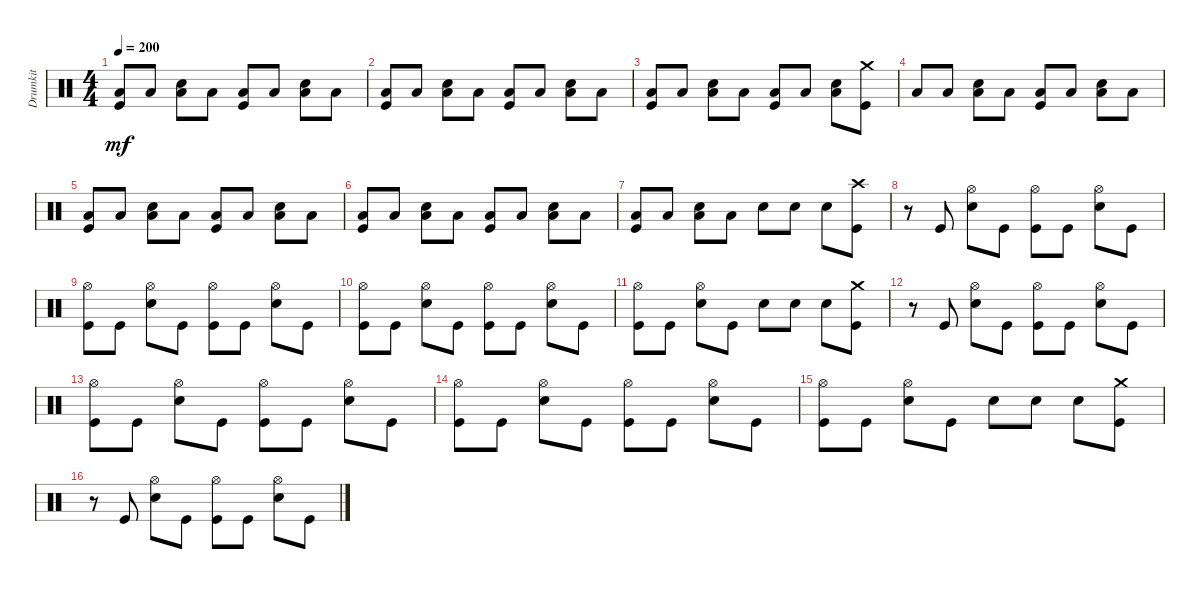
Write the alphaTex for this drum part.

\track ("Drumkit" "Drumkit") {instrument percussion}
\staff {score}
\articulation defaults
\ts (4 4)
\tempo 200
\clef neutral
\ks c
("Low Floor Tom (hit)" "Kick (hit)").8{dy mf} "Low Floor Tom (hit)".8 ("Low Floor Tom (hit)" "Snare (hit) 2").8 "Low Floor Tom (hit)".8 ("Low Floor Tom (hit)" "Kick (hit)").8 "Low Floor Tom (hit)".8 ("Low Floor Tom (hit)" "Snare (hit) 2").8 "Low Floor Tom (hit)".8 |
("Low Floor Tom (hit)" "Kick (hit)").8 "Low Floor Tom (hit)".8 ("Low Floor Tom (hit)" "Snare (hit) 2").8 "Low Floor Tom (hit)".8 ("Low Floor Tom (hit)" "Kick (hit)").8 "Low Floor Tom (hit)".8 ("Low Floor Tom (hit)" "Snare (hit) 2").8 "Low Floor Tom (hit)".8 |
("Low Floor Tom (hit)" "Kick (hit)").8 "Low Floor Tom (hit)".8 ("Low Floor Tom (hit)" "Snare (hit) 2").8 "Low Floor Tom (hit)".8 ("Low Floor Tom (hit)" "Kick (hit)").8 "Low Floor Tom (hit)".8 ("Low Floor Tom (hit)" "Snare (hit) 2").8 ("Kick (hit)" "Crash medium (hit)").8 |
"Low Floor Tom (hit)".8 "Low Floor Tom (hit)".8 ("Low Floor Tom (hit)" "Snare (hit) 2").8 "Low Floor Tom (hit)".8 ("Low Floor Tom (hit)" "Kick (hit)").8 "Low Floor Tom (hit)".8 ("Low Floor Tom (hit)" "Snare (hit) 2").8 "Low Floor Tom (hit)".8 |
("Low Floor Tom (hit)" "Kick (hit)").8 "Low Floor Tom (hit)".8 ("Low Floor Tom (hit)" "Snare (hit) 2").8 "Low Floor Tom (hit)".8 ("Low Floor Tom (hit)" "Kick (hit)").8 "Low Floor Tom (hit)".8 ("Low Floor Tom (hit)" "Snare (hit) 2").8 "Low Floor Tom (hit)".8 |
("Low Floor Tom (hit)" "Kick (hit)").8 "Low Floor Tom (hit)".8 ("Low Floor Tom (hit)" "Snare (hit) 2").8 "Low Floor Tom (hit)".8 ("Low Floor Tom (hit)" "Kick (hit)").8 "Low Floor Tom (hit)".8 ("Low Floor Tom (hit)" "Snare (hit) 2").8 "Low Floor Tom (hit)".8 |
("Low Floor Tom (hit)" "Kick (hit)").8 "Low Floor Tom (hit)".8 ("Low Floor Tom (hit)" "Snare (hit) 2").8 "Low Floor Tom (hit)".8 "Snare (hit) 2".8 "Snare (hit) 2".8 "Snare (hit) 2".8 ("Kick (hit)" "Crash high (hit)").8 |
r.8 "Kick (hit)".8 ("Hi-Hat (open)" "Snare (hit) 2").8 "Kick (hit)".8 ("Kick (hit)" "Hi-Hat (open)").8 "Kick (hit)".8 ("Snare (hit) 2" "Hi-Hat (open)").8 "Kick (hit)".8 |
("Kick (hit)" "Hi-Hat (open)").8 "Kick (hit)".8 ("Hi-Hat (open)" "Snare (hit) 2").8 "Kick (hit)".8 ("Kick (hit)" "Hi-Hat (open)").8 "Kick (hit)".8 ("Snare (hit) 2" "Hi-Hat (open)").8 "Kick (hit)".8 |
("Kick (hit)" "Hi-Hat (open)").8 "Kick (hit)".8 ("Hi-Hat (open)" "Snare (hit) 2").8 "Kick (hit)".8 ("Kick (hit)" "Hi-Hat (open)").8 "Kick (hit)".8 ("Snare (hit) 2" "Hi-Hat (open)").8 "Kick (hit)".8 |
("Kick (hit)" "Hi-Hat (open)").8 "Kick (hit)".8 ("Hi-Hat (open)" "Snare (hit) 2").8 "Kick (hit)".8 "Snare (hit) 2".8 "Snare (hit) 2".8 "Snare (hit) 2".8 ("Kick (hit)" "Crash medium (hit)").8 |
r.8 "Kick (hit)".8 ("Hi-Hat (open)" "Snare (hit) 2").8 "Kick (hit)".8 ("Kick (hit)" "Hi-Hat (open)").8 "Kick (hit)".8 ("Snare (hit) 2" "Hi-Hat (open)").8 "Kick (hit)".8 |
("Kick (hit)" "Hi-Hat (open)").8 "Kick (hit)".8 ("Hi-Hat (open)" "Snare (hit) 2").8 "Kick (hit)".8 ("Kick (hit)" "Hi-Hat (open)").8 "Kick (hit)".8 ("Snare (hit) 2" "Hi-Hat (open)").8 "Kick (hit)".8 |
("Kick (hit)" "Hi-Hat (open)").8 "Kick (hit)".8 ("Hi-Hat (open)" "Snare (hit) 2").8 "Kick (hit)".8 ("Kick (hit)" "Hi-Hat (open)").8 "Kick (hit)".8 ("Snare (hit) 2" "Hi-Hat (open)").8 "Kick (hit)".8 |
("Kick (hit)" "Hi-Hat (open)").8 "Kick (hit)".8 ("Hi-Hat (open)" "Snare (hit) 2").8 "Kick (hit)".8 "Snare (hit) 2".8 "Snare (hit) 2".8 "Snare (hit) 2".8 ("Kick (hit)" "Crash medium (hit)").8 |
r.8 "Kick (hit)".8 ("Hi-Hat (open)" "Snare (hit) 2").8 "Kick (hit)".8 ("Kick (hit)" "Hi-Hat (open)").8 "Kick (hit)".8 ("Snare (hit) 2" "Hi-Hat (open)").8 "Kick (hit)".8
